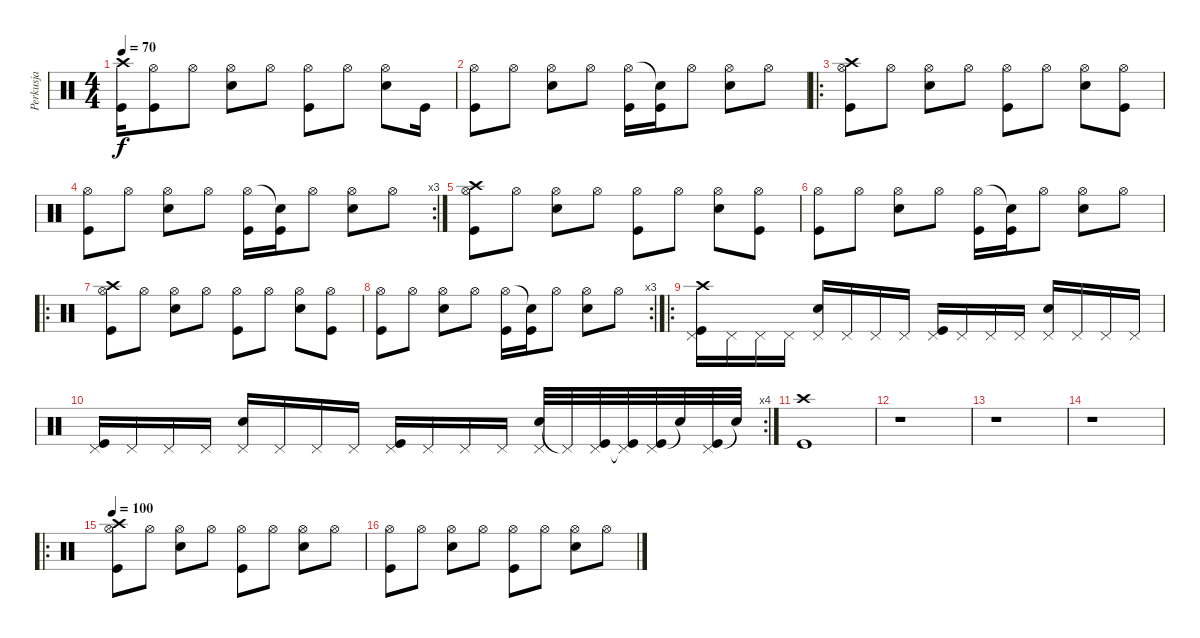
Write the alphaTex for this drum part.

\track ("Perkusja" "Perkusja") {instrument percussion}
\staff {score}
\articulation defaults
\ts (4 4)
\tempo 70
\clef neutral
\ks c
("Crash high (hit)" "Kick (hit)").16{dy f} ("Hi-Hat (open)" "Kick (hit)").8 "Hi-Hat (open)".8 ("Snare (hit) 2" "Hi-Hat (open)").8 "Hi-Hat (open)".8 ("Kick (hit)" "Hi-Hat (open)").8 "Hi-Hat (open)".8 ("Snare (hit) 2" "Hi-Hat (open)").8 "Kick (hit)".16 |
("Kick (hit)" "Hi-Hat (open)").8 "Hi-Hat (open)".8 ("Snare (hit) 2" "Hi-Hat (open)").8 "Hi-Hat (open)".8 ("Kick (hit)" "Hi-Hat (open)").16 ("Kick (hit)" "Snare (hit)"{t}).16 "Hi-Hat (open)".8 ("Snare (hit) 2" "Hi-Hat (open)").8 "Hi-Hat (open)".8 |
\ro
("Crash high (hit)" "Hi-Hat (open)" "Kick (hit)").8 "Hi-Hat (open)".8 ("Snare (hit) 2" "Hi-Hat (open)").8 "Hi-Hat (open)".8 ("Kick (hit)" "Hi-Hat (open)").8 "Hi-Hat (open)".8 ("Snare (hit) 2" "Hi-Hat (open)").8 ("Kick (hit)" "Hi-Hat (open)").8 |
\rc 3
("Kick (hit)" "Hi-Hat (open)").8 "Hi-Hat (open)".8 ("Snare (hit) 2" "Hi-Hat (open)").8 "Hi-Hat (open)".8 ("Kick (hit)" "Hi-Hat (open)").16 ("Kick (hit)" "Snare (hit)"{t}).16 "Hi-Hat (open)".8 ("Snare (hit) 2" "Hi-Hat (open)").8 "Hi-Hat (open)".8 |
("Crash high (hit)" "Hi-Hat (open)" "Kick (hit)").8 "Hi-Hat (open)".8 ("Snare (hit) 2" "Hi-Hat (open)").8 "Hi-Hat (open)".8 ("Kick (hit)" "Hi-Hat (open)").8 "Hi-Hat (open)".8 ("Snare (hit) 2" "Hi-Hat (open)").8 ("Kick (hit)" "Hi-Hat (open)").8 |
("Kick (hit)" "Hi-Hat (open)").8 "Hi-Hat (open)".8 ("Snare (hit) 2" "Hi-Hat (open)").8 "Hi-Hat (open)".8 ("Kick (hit)" "Hi-Hat (open)").16 ("Kick (hit)" "Snare (hit)"{t}).16 "Hi-Hat (open)".8 ("Snare (hit) 2" "Hi-Hat (open)").8 "Hi-Hat (open)".8 |
\ro
("Crash high (hit)" "Hi-Hat (open)" "Kick (hit)").8 "Hi-Hat (open)".8 ("Snare (hit) 2" "Hi-Hat (open)").8 "Hi-Hat (open)".8 ("Kick (hit)" "Hi-Hat (open)").8 "Hi-Hat (open)".8 ("Snare (hit) 2" "Hi-Hat (open)").8 ("Kick (hit)" "Hi-Hat (open)").8 |
\rc 3
("Kick (hit)" "Hi-Hat (open)").8 "Hi-Hat (open)".8 ("Snare (hit) 2" "Hi-Hat (open)").8 "Hi-Hat (open)".8 ("Kick (hit)" "Hi-Hat (open)").16 ("Kick (hit)" "Snare (hit)"{t}).16 "Hi-Hat (open)".8 ("Snare (hit) 2" "Hi-Hat (open)").8 "Hi-Hat (open)".8 |
\ro
("Crash high (hit)" "Kick (hit)" "Pedal Hi-Hat (hit)").16 "Pedal Hi-Hat (hit)".16 "Pedal Hi-Hat (hit)".16 "Pedal Hi-Hat (hit)".16 ("Snare (hit) 2" "Pedal Hi-Hat (hit)").16 "Pedal Hi-Hat (hit)".16 "Pedal Hi-Hat (hit)".16 "Pedal Hi-Hat (hit)".16 ("Kick (hit)" "Pedal Hi-Hat (hit)").16 "Pedal Hi-Hat (hit)".16 "Pedal Hi-Hat (hit)".16 "Pedal Hi-Hat (hit)".16 ("Snare (hit) 2" "Pedal Hi-Hat (hit)").16 "Pedal Hi-Hat (hit)".16 "Pedal Hi-Hat (hit)".16 "Pedal Hi-Hat (hit)".16 |
\rc 4
("Kick (hit)" "Pedal Hi-Hat (hit)").16 "Pedal Hi-Hat (hit)".16 "Pedal Hi-Hat (hit)".16 "Pedal Hi-Hat (hit)".16 ("Snare (hit) 2" "Pedal Hi-Hat (hit)").16 "Pedal Hi-Hat (hit)".16 "Pedal Hi-Hat (hit)".16 "Pedal Hi-Hat (hit)".16 ("Kick (hit)" "Pedal Hi-Hat (hit)").16 "Pedal Hi-Hat (hit)".16 "Pedal Hi-Hat (hit)".16 "Pedal Hi-Hat (hit)".16 ("Snare (hit) 2" "Pedal Hi-Hat (hit)").32 "Pedal Hi-Hat (hit)"{t}.32 ("Kick (hit)" "Pedal Hi-Hat (hit)").32 ("Kick (hit)" "Pedal Hi-Hat (hit)"{t}).32 ("Kick (hit)" "Pedal Hi-Hat (hit)").32 "Snare (hit)"{t}.32 ("Kick (hit)" "Pedal Hi-Hat (hit)").32 "Snare (hit)"{t}.32 |
("Crash high (hit)" "Kick (hit)").1 |
r.1 |
r.1 |
r.1 |
\ro
\tempo 100
("Crash high (hit)" "Hi-Hat (open)" "Kick (hit)").8 "Hi-Hat (open)".8 ("Snare (hit) 2" "Hi-Hat (open)").8 "Hi-Hat (open)".8 ("Kick (hit)" "Hi-Hat (open)").8 "Hi-Hat (open)".8 ("Snare (hit) 2" "Hi-Hat (open)").8 "Hi-Hat (open)".8 |
("Kick (hit)" "Hi-Hat (open)").8 "Hi-Hat (open)".8 ("Snare (hit) 2" "Hi-Hat (open)").8 "Hi-Hat (open)".8 ("Kick (hit)" "Hi-Hat (open)").8 "Hi-Hat (open)".8 ("Snare (hit) 2" "Hi-Hat (open)").8 "Hi-Hat (open)".8
